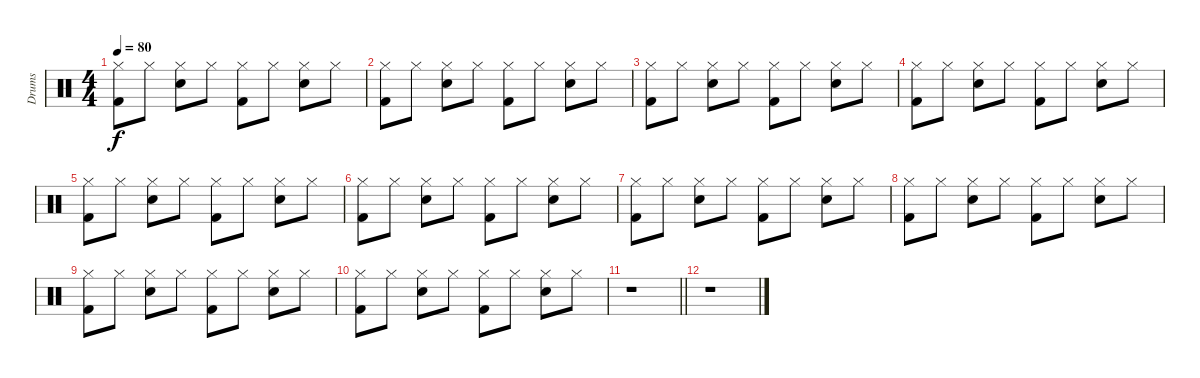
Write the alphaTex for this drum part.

\track ("Drums" "Drums") {instrument percussion}
\staff {score}
\articulation defaults
\ts (4 4)
\tempo 80
\clef neutral
\ks c
("Hi-Hat (closed)" "Kick (hit) 2").8{dy f} "Hi-Hat (closed)".8 ("Hi-Hat (closed)" "Snare (hit) 2").8 "Hi-Hat (closed)".8 ("Hi-Hat (closed)" "Kick (hit) 2").8 "Hi-Hat (closed)".8 ("Hi-Hat (closed)" "Snare (hit) 2").8 "Hi-Hat (closed)".8 |
("Hi-Hat (closed)" "Kick (hit) 2").8 "Hi-Hat (closed)".8 ("Hi-Hat (closed)" "Snare (hit) 2").8 "Hi-Hat (closed)".8 ("Hi-Hat (closed)" "Kick (hit) 2").8 "Hi-Hat (closed)".8 ("Hi-Hat (closed)" "Snare (hit) 2").8 "Hi-Hat (closed)".8 |
("Hi-Hat (closed)" "Kick (hit) 2").8 "Hi-Hat (closed)".8 ("Hi-Hat (closed)" "Snare (hit) 2").8 "Hi-Hat (closed)".8 ("Hi-Hat (closed)" "Kick (hit) 2").8 "Hi-Hat (closed)".8 ("Hi-Hat (closed)" "Snare (hit) 2").8 "Hi-Hat (closed)".8 |
("Hi-Hat (closed)" "Kick (hit) 2").8 "Hi-Hat (closed)".8 ("Hi-Hat (closed)" "Snare (hit) 2").8 "Hi-Hat (closed)".8 ("Hi-Hat (closed)" "Kick (hit) 2").8 "Hi-Hat (closed)".8 ("Hi-Hat (closed)" "Snare (hit) 2").8 "Hi-Hat (closed)".8 |
("Hi-Hat (closed)" "Kick (hit) 2").8 "Hi-Hat (closed)".8 ("Hi-Hat (closed)" "Snare (hit) 2").8 "Hi-Hat (closed)".8 ("Hi-Hat (closed)" "Kick (hit) 2").8 "Hi-Hat (closed)".8 ("Hi-Hat (closed)" "Snare (hit) 2").8 "Hi-Hat (closed)".8 |
("Hi-Hat (closed)" "Kick (hit) 2").8 "Hi-Hat (closed)".8 ("Hi-Hat (closed)" "Snare (hit) 2").8 "Hi-Hat (closed)".8 ("Hi-Hat (closed)" "Kick (hit) 2").8 "Hi-Hat (closed)".8 ("Hi-Hat (closed)" "Snare (hit) 2").8 "Hi-Hat (closed)".8 |
("Hi-Hat (closed)" "Kick (hit) 2").8 "Hi-Hat (closed)".8 ("Hi-Hat (closed)" "Snare (hit) 2").8 "Hi-Hat (closed)".8 ("Hi-Hat (closed)" "Kick (hit) 2").8 "Hi-Hat (closed)".8 ("Hi-Hat (closed)" "Snare (hit) 2").8 "Hi-Hat (closed)".8 |
("Hi-Hat (closed)" "Kick (hit) 2").8 "Hi-Hat (closed)".8 ("Hi-Hat (closed)" "Snare (hit) 2").8 "Hi-Hat (closed)".8 ("Hi-Hat (closed)" "Kick (hit) 2").8 "Hi-Hat (closed)".8 ("Hi-Hat (closed)" "Snare (hit) 2").8 "Hi-Hat (closed)".8 |
("Hi-Hat (closed)" "Kick (hit) 2").8 "Hi-Hat (closed)".8 ("Hi-Hat (closed)" "Snare (hit) 2").8 "Hi-Hat (closed)".8 ("Hi-Hat (closed)" "Kick (hit) 2").8 "Hi-Hat (closed)".8 ("Hi-Hat (closed)" "Snare (hit) 2").8 "Hi-Hat (closed)".8 |
("Hi-Hat (closed)" "Kick (hit) 2").8 "Hi-Hat (closed)".8 ("Hi-Hat (closed)" "Snare (hit) 2").8 "Hi-Hat (closed)".8 ("Hi-Hat (closed)" "Kick (hit) 2").8 "Hi-Hat (closed)".8 ("Hi-Hat (closed)" "Snare (hit) 2").8 "Hi-Hat (closed)".8 |
\barLineRight lightlight
r.1 |
r.1
